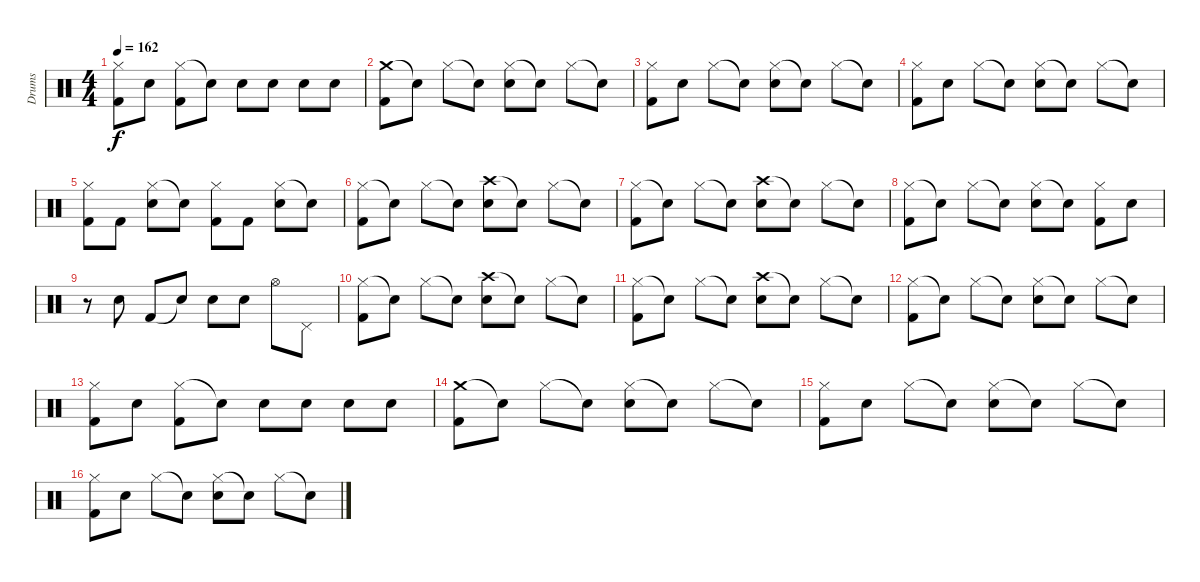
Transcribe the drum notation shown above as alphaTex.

\track ("Drums" "Drums") {instrument percussion}
\staff {score}
\articulation defaults
\ts (4 4)
\tempo 162
\clef neutral
\ks c
("Hi-Hat (closed)" "Kick (hit) 2").8{dy f} "Snare (hit) 2".8 ("Hi-Hat (closed)" "Kick (hit) 2").8 "Snare (hit)"{t}.8 "Snare (hit) 2".8 "Snare (hit) 2".8 "Snare (hit) 2".8 "Snare (hit) 2".8 |
("Crash medium (hit)" "Kick (hit) 2").8 "Snare (hit)"{t}.8 "Hi-Hat (closed)".8 "Snare (hit)"{t}.8 ("Hi-Hat (closed)" "Snare (hit) 2").8 "Snare (hit)"{t}.8 "Hi-Hat (closed)".8 "Snare (hit)"{t}.8 |
("Hi-Hat (closed)" "Kick (hit) 2").8 "Snare (hit) 2".8 "Hi-Hat (closed)".8 "Snare (hit)"{t}.8 ("Hi-Hat (closed)" "Snare (hit) 2").8 "Snare (hit)"{t}.8 "Hi-Hat (closed)".8 "Snare (hit)"{t}.8 |
("Hi-Hat (closed)" "Kick (hit) 2").8 "Snare (hit) 2".8 "Hi-Hat (closed)".8 "Snare (hit)"{t}.8 ("Hi-Hat (closed)" "Snare (hit) 2").8 "Snare (hit)"{t}.8 "Hi-Hat (closed)".8 "Snare (hit)"{t}.8 |
("Hi-Hat (closed)" "Kick (hit) 2").8 "Kick (hit) 2".8 ("Hi-Hat (closed)" "Snare (hit) 2").8 "Snare (hit)"{t}.8 ("Hi-Hat (closed)" "Kick (hit) 2").8 "Kick (hit) 2".8 ("Hi-Hat (closed)" "Snare (hit) 2").8 "Snare (hit)"{t}.8 |
("Hi-Hat (closed)" "Kick (hit) 2").8 "Snare (hit)"{t}.8 "Hi-Hat (closed)".8 "Snare (hit)"{t}.8 ("Crash high (hit)" "Snare (hit) 2").8 "Snare (hit)"{t}.8 "Hi-Hat (closed)".8 "Snare (hit)"{t}.8 |
("Hi-Hat (closed)" "Kick (hit) 2").8 "Snare (hit)"{t}.8 "Hi-Hat (closed)".8 "Snare (hit)"{t}.8 ("Crash high (hit)" "Snare (hit) 2").8 "Snare (hit)"{t}.8 "Hi-Hat (closed)".8 "Snare (hit)"{t}.8 |
("Hi-Hat (closed)" "Kick (hit) 2").8 "Snare (hit)"{t}.8 "Hi-Hat (closed)".8 "Snare (hit)"{t}.8 ("Hi-Hat (closed)" "Snare (hit) 2").8 "Snare (hit)"{t}.8 ("Hi-Hat (closed)" "Kick (hit) 2").8 "Snare (hit) 2".8 |
r.8 "Snare (hit) 2".8 "Kick (hit) 2".8 "Snare (hit)"{t}.8 "Snare (hit) 2".8 "Snare (hit) 2".8 "Hi-Hat (open)".8 "Pedal Hi-Hat (hit)".8 |
("Hi-Hat (closed)" "Kick (hit) 2").8 "Snare (hit)"{t}.8 "Hi-Hat (closed)".8 "Snare (hit)"{t}.8 ("Crash high (hit)" "Snare (hit) 2").8 "Snare (hit)"{t}.8 "Hi-Hat (closed)".8 "Snare (hit)"{t}.8 |
("Hi-Hat (closed)" "Kick (hit) 2").8 "Snare (hit)"{t}.8 "Hi-Hat (closed)".8 "Snare (hit)"{t}.8 ("Crash high (hit)" "Snare (hit) 2").8 "Snare (hit)"{t}.8 "Hi-Hat (closed)".8 "Snare (hit)"{t}.8 |
("Hi-Hat (closed)" "Kick (hit) 2").8 "Snare (hit)"{t}.8 "Hi-Hat (closed)".8 "Snare (hit)"{t}.8 ("Hi-Hat (closed)" "Snare (hit) 2").8 "Snare (hit)"{t}.8 "Hi-Hat (closed)".8 "Snare (hit)"{t}.8 |
("Hi-Hat (closed)" "Kick (hit) 2").8 "Snare (hit) 2".8 ("Hi-Hat (closed)" "Kick (hit) 2").8 "Snare (hit)"{t}.8 "Snare (hit) 2".8 "Snare (hit) 2".8 "Snare (hit) 2".8 "Snare (hit) 2".8 |
("Crash medium (hit)" "Kick (hit) 2").8 "Snare (hit)"{t}.8 "Hi-Hat (closed)".8 "Snare (hit)"{t}.8 ("Hi-Hat (closed)" "Snare (hit) 2").8 "Snare (hit)"{t}.8 "Hi-Hat (closed)".8 "Snare (hit)"{t}.8 |
("Hi-Hat (closed)" "Kick (hit) 2").8 "Snare (hit) 2".8 "Hi-Hat (closed)".8 "Snare (hit)"{t}.8 ("Hi-Hat (closed)" "Snare (hit) 2").8 "Snare (hit)"{t}.8 "Hi-Hat (closed)".8 "Snare (hit)"{t}.8 |
("Hi-Hat (closed)" "Kick (hit) 2").8 "Snare (hit) 2".8 "Hi-Hat (closed)".8 "Snare (hit)"{t}.8 ("Hi-Hat (closed)" "Snare (hit) 2").8 "Snare (hit)"{t}.8 "Hi-Hat (closed)".8 "Snare (hit)"{t}.8
